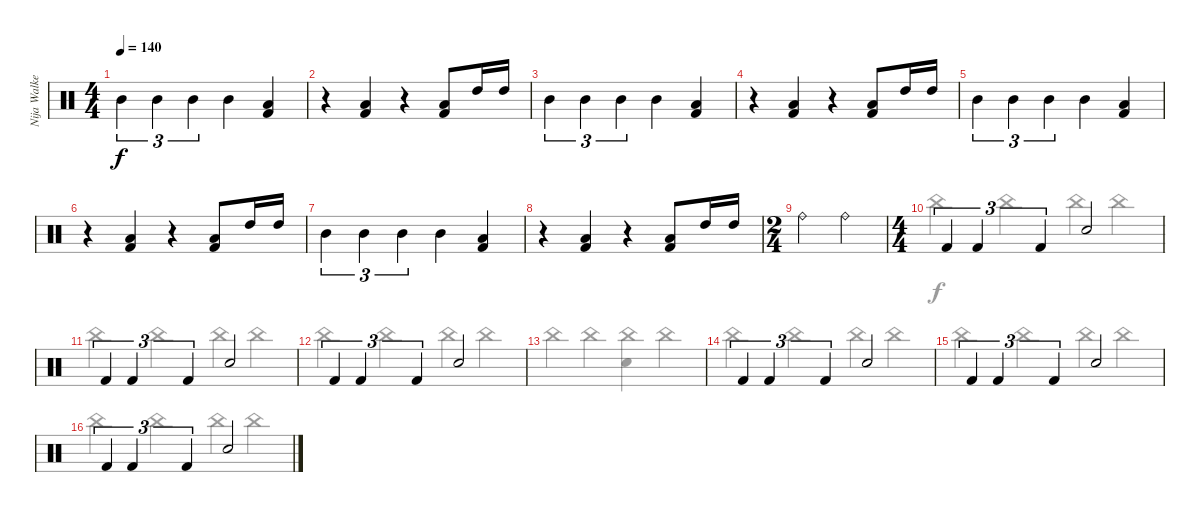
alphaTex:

\track ("Nija Walker" "Nija Walke") {instrument percussion bank 151}
\staff {score}
\articulation defaults
\voice
\ts (4 4)
\tempo 140
\clef neutral
\ks c "Mid Tom (hit)".4{tu (3 2) dy f} "Mid Tom (hit)".4{tu (3 2)} "Mid Tom (hit)".4{tu (3 2)} "Mid Tom (hit)".4
("Low Tom (hit)" "Kick (hit) 2").4 |
r.4 ("Low Tom (hit)" "Kick (hit) 2").4 r.4 ("Low Tom (hit)" "Kick (hit) 2").8 "High Tom (hit)".16 "High Tom (hit)".16 |
"Mid Tom (hit)".4{tu (3 2)} "Mid Tom (hit)".4{tu (3 2)} "Mid Tom (hit)".4{tu (3 2)} "Mid Tom (hit)".4 ("Low Tom (hit)" "Kick (hit) 2").4 |
r.4 ("Low Tom (hit)" "Kick (hit) 2").4 r.4 ("Low Tom (hit)" "Kick (hit) 2").8 "High Tom (hit)".16 "High Tom (hit)".16 |
"Mid Tom (hit)".4{tu (3 2)} "Mid Tom (hit)".4{tu (3 2)} "Mid Tom (hit)".4{tu (3 2)} "Mid Tom (hit)".4 ("Low Tom (hit)" "Kick (hit) 2").4 |
r.4 ("Low Tom (hit)" "Kick (hit) 2").4 r.4 ("Low Tom (hit)" "Kick (hit) 2").8 "High Tom (hit)".16 "High Tom (hit)".16 |
"Mid Tom (hit)".4{tu (3 2)} "Mid Tom (hit)".4{tu (3 2)} "Mid Tom (hit)".4{tu (3 2)} "Mid Tom (hit)".4 ("Low Tom (hit)" "Kick (hit) 2").4 |
r.4 ("Low Tom (hit)" "Kick (hit) 2").4 r.4 ("Low Tom (hit)" "Kick (hit) 2").8 "High Tom (hit)".16 "High Tom (hit)".16 |
\ts (2 4)
"Ride (bell)".4 "Ride (bell)".4 |
\ts (4 4)
"Kick (hit) 2".4{tu (3 2)} "Kick (hit) 2".4{tu (3 2)} "Kick (hit) 2".4{tu (3 2)} "Electric Snare (hit)".2 |
"Kick (hit) 2".4{tu (3 2)} "Kick (hit) 2".4{tu (3 2)} "Kick (hit) 2".4{tu (3 2)} "Electric Snare (hit)".2 |
"Kick (hit) 2".4{tu (3 2)} "Kick (hit) 2".4{tu (3 2)} "Kick (hit) 2".4{tu (3 2)} "Electric Snare (hit)".2 |
|
"Kick (hit) 2".4{tu (3 2)} "Kick (hit) 2".4{tu (3 2)} "Kick (hit) 2".4{tu (3 2)} "Electric Snare (hit)".2 |
"Kick (hit) 2".4{tu (3 2)} "Kick (hit) 2".4{tu (3 2)} "Kick (hit) 2".4{tu (3 2)} "Electric Snare (hit)".2 |
"Kick (hit) 2".4{tu (3 2)} "Kick (hit) 2".4{tu (3 2)} "Kick (hit) 2".4{tu (3 2)} "Electric Snare (hit)".2
\voice
\clef neutral
\ottava regular
\simile none
\ks c
|
|
|
|
|
|
|
|
|
"China (hit)".4 "China (hit)".4 "China (hit)".4 "China (hit)".4 |
"China (hit)".4 "China (hit)".4 "China (hit)".4 "China (hit)".4 |
"China (hit)".4 "China (hit)".4 "China (hit)".4 "China (hit)".4 |
"China (hit)".4 "China (hit)".4 ("China (hit)" "Electric Snare (hit)").4 "China (hit)".4 |
"China (hit)".4 "China (hit)".4 "China (hit)".4 "China (hit)".4 |
"China (hit)".4 "China (hit)".4 "China (hit)".4 "China (hit)".4 |
"China (hit)".4 "China (hit)".4 "China (hit)".4 "China (hit)".4
